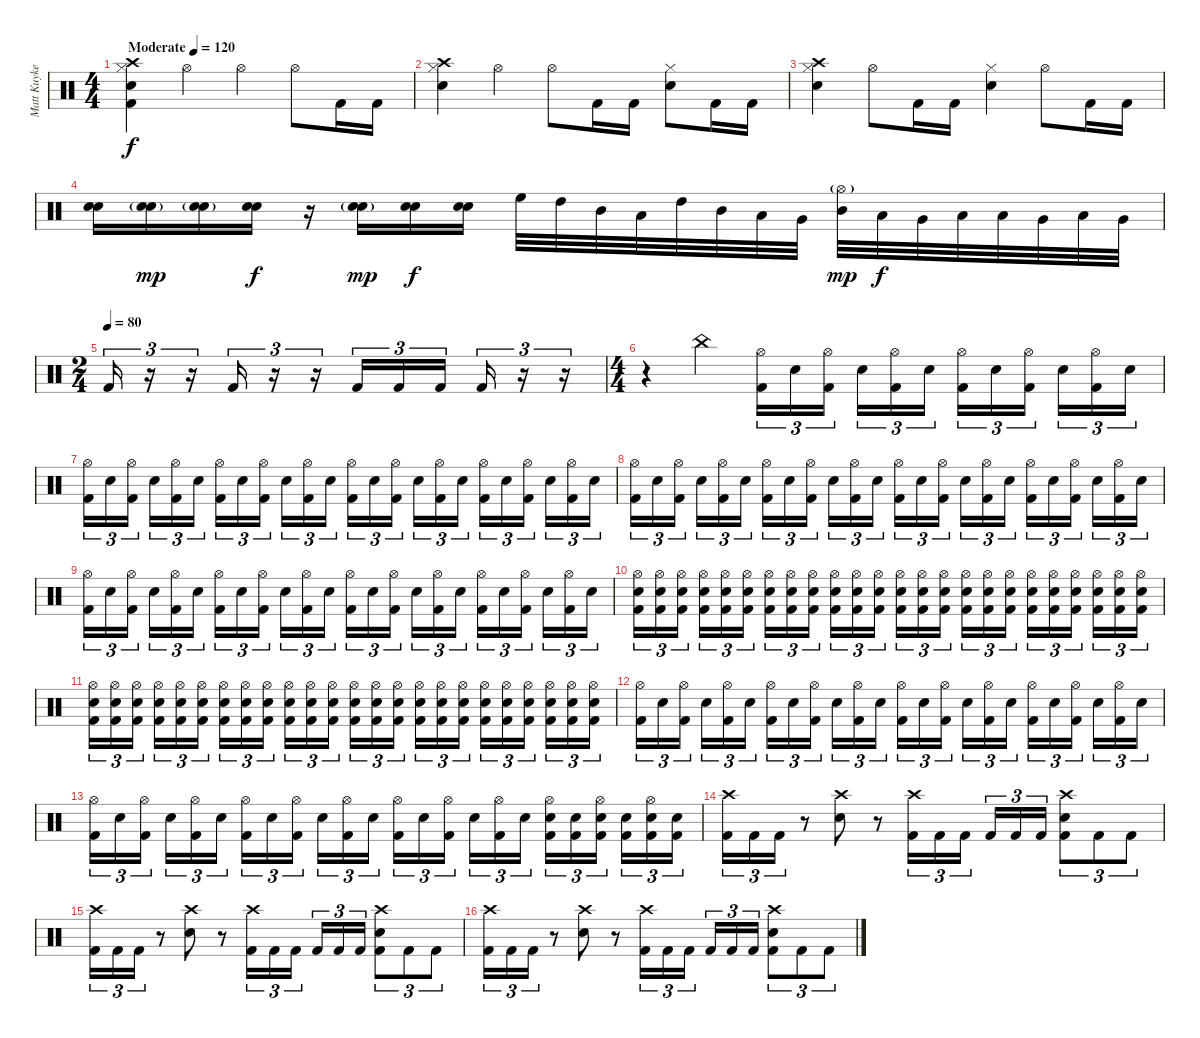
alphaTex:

\track ("Matt Kuykendall (Drums)" "Matt Kuyke") {instrument percussion}
\staff {score}
\articulation defaults
\ts (4 4)
\tempo (120 "Moderate")
\clef neutral
\ks c
("Hi-Hat (closed)" "Crash high (hit)" "Snare (hit) 2" "Kick (hit) 2").4{dy f} "Hi-Hat (open)".4 "Hi-Hat (open)".4 "Hi-Hat (open)".8 "Kick (hit) 2".16 "Kick (hit) 2".16 |
("Hi-Hat (closed)" "Crash high (hit)" "Snare (hit) 2").4 "Hi-Hat (open)".4 "Hi-Hat (open)".8 "Kick (hit) 2".16 "Kick (hit) 2".16 ("Hi-Hat (closed)" "Snare (hit) 2").8 "Kick (hit) 2".16 "Kick (hit) 2".16 |
("Hi-Hat (closed)" "Crash high (hit)" "Snare (hit) 2").4 "Hi-Hat (open)".8 "Kick (hit) 2".16 "Kick (hit) 2".16 ("Hi-Hat (closed)" "Snare (hit) 2").4 "Hi-Hat (open)".8 "Kick (hit) 2".16 "Kick (hit) 2".16 |
("Snare (hit) 2" "Snare (hit) 2").16 ("Snare (hit) 2" "Snare (hit) 2"{g}).16{dy mp} ("Snare (hit) 2" "Snare (hit) 2"{g}).16 ("Snare (hit) 2" "Snare (hit) 2").16{dy f} r.16 ("Snare (hit) 2" "Snare (hit) 2"{g}).16{dy mp} ("Snare (hit) 2" "Snare (hit) 2").16{dy f} ("Snare (hit) 2" "Snare (hit) 2").16 "High Floor Tom (hit)".32 "High Tom (hit)".32 "Mid Tom (hit)".32 "Low Tom (hit)".32 "High Tom (hit)".32 "Mid Tom (hit)".32 "Low Tom (hit)".32 "Very Low Tom (hit)".32 ("Hi-Hat (open)"{g} "Mid Tom (hit)").32{dy mp} "Low Tom (hit)".32{dy f} "Very Low Tom (hit)".32 "Low Floor Tom (hit)".32 "Low Tom (hit)".32 "Very Low Tom (hit)".32 "Low Floor Tom (hit)".32 "Very Low Tom (hit)".32 |
\ts (2 4)
\tempo (80)
"Kick (hit) 2".16{tu (3 2)} r.16{tu (3 2)} r.16{tu (3 2)} "Kick (hit) 2".16{tu (3 2)} r.16{tu (3 2)} r.16{tu (3 2)} "Kick (hit) 2".16{tu (3 2)} "Kick (hit) 2".16{tu (3 2)} "Kick (hit) 2".16{tu (3 2) beam splitsecondary} "Kick (hit) 2".16{tu (3 2)} r.16{tu (3 2)} r.16{tu (3 2)} |
\ts (4 4)
r.4 "China (hit)".4 ("Hi-Hat (open)" "Kick (hit) 2").16{tu (3 2)} "Snare (hit) 2".16{tu (3 2)} ("Hi-Hat (open)" "Kick (hit) 2").16{tu (3 2) beam splitsecondary} "Snare (hit) 2".16{tu (3 2)} ("Hi-Hat (open)" "Kick (hit) 2").16{tu (3 2)} "Snare (hit) 2".16{tu (3 2)} ("Hi-Hat (open)" "Kick (hit) 2").16{tu (3 2)} "Snare (hit) 2".16{tu (3 2)} ("Hi-Hat (open)" "Kick (hit) 2").16{tu (3 2) beam splitsecondary} "Snare (hit) 2".16{tu (3 2)} ("Hi-Hat (open)" "Kick (hit) 2").16{tu (3 2)} "Snare (hit) 2".16{tu (3 2)} |
("Hi-Hat (open)" "Kick (hit) 2").16{tu (3 2)} "Snare (hit) 2".16{tu (3 2)} ("Hi-Hat (open)" "Kick (hit) 2").16{tu (3 2) beam splitsecondary} "Snare (hit) 2".16{tu (3 2)} ("Hi-Hat (open)" "Kick (hit) 2").16{tu (3 2)} "Snare (hit) 2".16{tu (3 2)} ("Hi-Hat (open)" "Kick (hit) 2").16{tu (3 2)} "Snare (hit) 2".16{tu (3 2)} ("Hi-Hat (open)" "Kick (hit) 2").16{tu (3 2) beam splitsecondary} "Snare (hit) 2".16{tu (3 2)} ("Hi-Hat (open)" "Kick (hit) 2").16{tu (3 2)} "Snare (hit) 2".16{tu (3 2)} ("Hi-Hat (open)" "Kick (hit) 2").16{tu (3 2)} "Snare (hit) 2".16{tu (3 2)} ("Hi-Hat (open)" "Kick (hit) 2").16{tu (3 2) beam splitsecondary} "Snare (hit) 2".16{tu (3 2)} ("Hi-Hat (open)" "Kick (hit) 2").16{tu (3 2)} "Snare (hit) 2".16{tu (3 2)} ("Hi-Hat (open)" "Kick (hit) 2").16{tu (3 2)} "Snare (hit) 2".16{tu (3 2)} ("Hi-Hat (open)" "Kick (hit) 2").16{tu (3 2) beam splitsecondary} "Snare (hit) 2".16{tu (3 2)} ("Hi-Hat (open)" "Kick (hit) 2").16{tu (3 2)} "Snare (hit) 2".16{tu (3 2)} |
("Hi-Hat (open)" "Kick (hit) 2").16{tu (3 2)} "Snare (hit) 2".16{tu (3 2)} ("Hi-Hat (open)" "Kick (hit) 2").16{tu (3 2) beam splitsecondary} "Snare (hit) 2".16{tu (3 2)} ("Hi-Hat (open)" "Kick (hit) 2").16{tu (3 2)} "Snare (hit) 2".16{tu (3 2)} ("Hi-Hat (open)" "Kick (hit) 2").16{tu (3 2)} "Snare (hit) 2".16{tu (3 2)} ("Hi-Hat (open)" "Kick (hit) 2").16{tu (3 2) beam splitsecondary} "Snare (hit) 2".16{tu (3 2)} ("Hi-Hat (open)" "Kick (hit) 2").16{tu (3 2)} "Snare (hit) 2".16{tu (3 2)} ("Hi-Hat (open)" "Kick (hit) 2").16{tu (3 2)} "Snare (hit) 2".16{tu (3 2)} ("Hi-Hat (open)" "Kick (hit) 2").16{tu (3 2) beam splitsecondary} "Snare (hit) 2".16{tu (3 2)} ("Hi-Hat (open)" "Kick (hit) 2").16{tu (3 2)} "Snare (hit) 2".16{tu (3 2)} ("Hi-Hat (open)" "Kick (hit) 2").16{tu (3 2)} "Snare (hit) 2".16{tu (3 2)} ("Hi-Hat (open)" "Kick (hit) 2").16{tu (3 2) beam splitsecondary} "Snare (hit) 2".16{tu (3 2)} ("Hi-Hat (open)" "Kick (hit) 2").16{tu (3 2)} "Snare (hit) 2".16{tu (3 2)} |
("Hi-Hat (open)" "Kick (hit) 2").16{tu (3 2)} "Snare (hit) 2".16{tu (3 2)} ("Hi-Hat (open)" "Kick (hit) 2").16{tu (3 2) beam splitsecondary} "Snare (hit) 2".16{tu (3 2)} ("Hi-Hat (open)" "Kick (hit) 2").16{tu (3 2)} "Snare (hit) 2".16{tu (3 2)} ("Hi-Hat (open)" "Kick (hit) 2").16{tu (3 2)} "Snare (hit) 2".16{tu (3 2)} ("Hi-Hat (open)" "Kick (hit) 2").16{tu (3 2) beam splitsecondary} "Snare (hit) 2".16{tu (3 2)} ("Hi-Hat (open)" "Kick (hit) 2").16{tu (3 2)} "Snare (hit) 2".16{tu (3 2)} ("Hi-Hat (open)" "Kick (hit) 2").16{tu (3 2)} "Snare (hit) 2".16{tu (3 2)} ("Hi-Hat (open)" "Kick (hit) 2").16{tu (3 2) beam splitsecondary} "Snare (hit) 2".16{tu (3 2)} ("Hi-Hat (open)" "Kick (hit) 2").16{tu (3 2)} "Snare (hit) 2".16{tu (3 2)} ("Hi-Hat (open)" "Kick (hit) 2").16{tu (3 2)} "Snare (hit) 2".16{tu (3 2)} ("Hi-Hat (open)" "Kick (hit) 2").16{tu (3 2) beam splitsecondary} "Snare (hit) 2".16{tu (3 2)} ("Hi-Hat (open)" "Kick (hit) 2").16{tu (3 2)} "Snare (hit) 2".16{tu (3 2)} |
("Hi-Hat (open)" "Snare (hit) 2" "Kick (hit) 2").16{tu (3 2)} ("Hi-Hat (open)" "Snare (hit) 2" "Kick (hit) 2").16{tu (3 2)} ("Hi-Hat (open)" "Snare (hit) 2" "Kick (hit) 2").16{tu (3 2) beam splitsecondary} ("Hi-Hat (open)" "Snare (hit) 2" "Kick (hit) 2").16{tu (3 2)} ("Hi-Hat (open)" "Snare (hit) 2" "Kick (hit) 2").16{tu (3 2)} ("Hi-Hat (open)" "Snare (hit) 2" "Kick (hit) 2").16{tu (3 2)} ("Hi-Hat (open)" "Snare (hit) 2" "Kick (hit) 2").16{tu (3 2)} ("Hi-Hat (open)" "Snare (hit) 2" "Kick (hit) 2").16{tu (3 2)} ("Hi-Hat (open)" "Snare (hit) 2" "Kick (hit) 2").16{tu (3 2) beam splitsecondary} ("Hi-Hat (open)" "Snare (hit) 2" "Kick (hit) 2").16{tu (3 2)} ("Hi-Hat (open)" "Snare (hit) 2" "Kick (hit) 2").16{tu (3 2)} ("Hi-Hat (open)" "Snare (hit) 2" "Kick (hit) 2").16{tu (3 2)} ("Hi-Hat (open)" "Snare (hit) 2" "Kick (hit) 2").16{tu (3 2)} ("Hi-Hat (open)" "Snare (hit) 2" "Kick (hit) 2").16{tu (3 2)} ("Hi-Hat (open)" "Snare (hit) 2" "Kick (hit) 2").16{tu (3 2) beam splitsecondary} ("Hi-Hat (open)" "Snare (hit) 2" "Kick (hit) 2").16{tu (3 2)} ("Hi-Hat (open)" "Snare (hit) 2" "Kick (hit) 2").16{tu (3 2)} ("Hi-Hat (open)" "Snare (hit) 2" "Kick (hit) 2").16{tu (3 2)} ("Hi-Hat (open)" "Snare (hit) 2" "Kick (hit) 2").16{tu (3 2)} ("Hi-Hat (open)" "Snare (hit) 2" "Kick (hit) 2").16{tu (3 2)} ("Hi-Hat (open)" "Snare (hit) 2" "Kick (hit) 2").16{tu (3 2) beam splitsecondary} ("Hi-Hat (open)" "Snare (hit) 2" "Kick (hit) 2").16{tu (3 2)} ("Hi-Hat (open)" "Snare (hit) 2" "Kick (hit) 2").16{tu (3 2)} ("Hi-Hat (open)" "Snare (hit) 2" "Kick (hit) 2").16{tu (3 2)} |
("Hi-Hat (open)" "Snare (hit) 2" "Kick (hit) 2").16{tu (3 2)} ("Hi-Hat (open)" "Snare (hit) 2" "Kick (hit) 2").16{tu (3 2)} ("Hi-Hat (open)" "Snare (hit) 2" "Kick (hit) 2").16{tu (3 2) beam splitsecondary} ("Hi-Hat (open)" "Snare (hit) 2" "Kick (hit) 2").16{tu (3 2)} ("Hi-Hat (open)" "Snare (hit) 2" "Kick (hit) 2").16{tu (3 2)} ("Hi-Hat (open)" "Snare (hit) 2" "Kick (hit) 2").16{tu (3 2)} ("Hi-Hat (open)" "Snare (hit) 2" "Kick (hit) 2").16{tu (3 2)} ("Hi-Hat (open)" "Snare (hit) 2" "Kick (hit) 2").16{tu (3 2)} ("Hi-Hat (open)" "Snare (hit) 2" "Kick (hit) 2").16{tu (3 2) beam splitsecondary} ("Hi-Hat (open)" "Snare (hit) 2" "Kick (hit) 2").16{tu (3 2)} ("Hi-Hat (open)" "Snare (hit) 2" "Kick (hit) 2").16{tu (3 2)} ("Hi-Hat (open)" "Snare (hit) 2" "Kick (hit) 2").16{tu (3 2)} ("Hi-Hat (open)" "Snare (hit) 2" "Kick (hit) 2").16{tu (3 2)} ("Hi-Hat (open)" "Snare (hit) 2" "Kick (hit) 2").16{tu (3 2)} ("Hi-Hat (open)" "Snare (hit) 2" "Kick (hit) 2").16{tu (3 2) beam splitsecondary} ("Hi-Hat (open)" "Snare (hit) 2" "Kick (hit) 2").16{tu (3 2)} ("Hi-Hat (open)" "Snare (hit) 2" "Kick (hit) 2").16{tu (3 2)} ("Hi-Hat (open)" "Snare (hit) 2" "Kick (hit) 2").16{tu (3 2)} ("Hi-Hat (open)" "Snare (hit) 2" "Kick (hit) 2").16{tu (3 2)} ("Hi-Hat (open)" "Snare (hit) 2" "Kick (hit) 2").16{tu (3 2)} ("Hi-Hat (open)" "Snare (hit) 2" "Kick (hit) 2").16{tu (3 2) beam splitsecondary} ("Hi-Hat (open)" "Snare (hit) 2" "Kick (hit) 2").16{tu (3 2)} ("Hi-Hat (open)" "Snare (hit) 2" "Kick (hit) 2").16{tu (3 2)} ("Hi-Hat (open)" "Snare (hit) 2" "Kick (hit) 2").16{tu (3 2)} |
("Hi-Hat (open)" "Kick (hit) 2").16{tu (3 2)} "Snare (hit) 2".16{tu (3 2)} ("Hi-Hat (open)" "Kick (hit) 2").16{tu (3 2) beam splitsecondary} "Snare (hit) 2".16{tu (3 2)} ("Hi-Hat (open)" "Kick (hit) 2").16{tu (3 2)} "Snare (hit) 2".16{tu (3 2)} ("Hi-Hat (open)" "Kick (hit) 2").16{tu (3 2)} "Snare (hit) 2".16{tu (3 2)} ("Hi-Hat (open)" "Kick (hit) 2").16{tu (3 2) beam splitsecondary} "Snare (hit) 2".16{tu (3 2)} ("Hi-Hat (open)" "Kick (hit) 2").16{tu (3 2)} "Snare (hit) 2".16{tu (3 2)} ("Hi-Hat (open)" "Kick (hit) 2").16{tu (3 2)} "Snare (hit) 2".16{tu (3 2)} ("Hi-Hat (open)" "Kick (hit) 2").16{tu (3 2) beam splitsecondary} "Snare (hit) 2".16{tu (3 2)} ("Hi-Hat (open)" "Kick (hit) 2").16{tu (3 2)} "Snare (hit) 2".16{tu (3 2)} ("Hi-Hat (open)" "Kick (hit) 2").16{tu (3 2)} "Snare (hit) 2".16{tu (3 2)} ("Hi-Hat (open)" "Kick (hit) 2").16{tu (3 2) beam splitsecondary} "Snare (hit) 2".16{tu (3 2)} ("Hi-Hat (open)" "Kick (hit) 2").16{tu (3 2)} "Snare (hit) 2".16{tu (3 2)} |
("Hi-Hat (open)" "Kick (hit) 2").16{tu (3 2)} "Snare (hit) 2".16{tu (3 2)} ("Hi-Hat (open)" "Kick (hit) 2").16{tu (3 2) beam splitsecondary} "Snare (hit) 2".16{tu (3 2)} ("Hi-Hat (open)" "Kick (hit) 2").16{tu (3 2)} "Snare (hit) 2".16{tu (3 2)} ("Hi-Hat (open)" "Kick (hit) 2").16{tu (3 2)} "Snare (hit) 2".16{tu (3 2)} ("Hi-Hat (open)" "Kick (hit) 2").16{tu (3 2) beam splitsecondary} "Snare (hit) 2".16{tu (3 2)} ("Hi-Hat (open)" "Kick (hit) 2").16{tu (3 2)} "Snare (hit) 2".16{tu (3 2)} ("Hi-Hat (open)" "Kick (hit) 2").16{tu (3 2)} "Snare (hit) 2".16{tu (3 2)} ("Hi-Hat (open)" "Kick (hit) 2").16{tu (3 2) beam splitsecondary} "Snare (hit) 2".16{tu (3 2)} ("Hi-Hat (open)" "Kick (hit) 2").16{tu (3 2)} "Snare (hit) 2".16{tu (3 2)} ("Hi-Hat (open)" "Snare (hit) 2" "Kick (hit) 2").16{tu (3 2)} ("Snare (hit) 2" "Kick (hit) 2").16{tu (3 2)} ("Hi-Hat (open)" "Snare (hit) 2" "Kick (hit) 2").16{tu (3 2) beam splitsecondary} ("Snare (hit) 2" "Kick (hit) 2").16{tu (3 2)} ("Hi-Hat (open)" "Snare (hit) 2" "Kick (hit) 2").16{tu (3 2)} ("Snare (hit) 2" "Kick (hit) 2").16{tu (3 2)} |
("Crash high (hit)" "Kick (hit) 2").16{tu (3 2)} "Kick (hit) 2".16{tu (3 2)} "Kick (hit) 2".16{tu (3 2)} r.8 ("Crash high (hit)" "Snare (hit) 2").8 r.8 ("Crash high (hit)" "Kick (hit) 2").16{tu (3 2)} "Kick (hit) 2".16{tu (3 2)} "Kick (hit) 2".16{tu (3 2) beam splitsecondary} "Kick (hit) 2".16{tu (3 2)} "Kick (hit) 2".16{tu (3 2)} "Kick (hit) 2".16{tu (3 2)} ("Crash high (hit)" "Snare (hit) 2" "Kick (hit) 2").8{tu (3 2)} "Kick (hit) 2".8{tu (3 2)} "Kick (hit) 2".8{tu (3 2)} |
("Crash high (hit)" "Kick (hit) 2").16{tu (3 2)} "Kick (hit) 2".16{tu (3 2)} "Kick (hit) 2".16{tu (3 2)} r.8 ("Crash high (hit)" "Snare (hit) 2").8 r.8 ("Crash high (hit)" "Kick (hit) 2").16{tu (3 2)} "Kick (hit) 2".16{tu (3 2)} "Kick (hit) 2".16{tu (3 2) beam splitsecondary} "Kick (hit) 2".16{tu (3 2)} "Kick (hit) 2".16{tu (3 2)} "Kick (hit) 2".16{tu (3 2)} ("Crash high (hit)" "Snare (hit) 2" "Kick (hit) 2").8{tu (3 2)} "Kick (hit) 2".8{tu (3 2)} "Kick (hit) 2".8{tu (3 2)} |
("Crash high (hit)" "Kick (hit) 2").16{tu (3 2)} "Kick (hit) 2".16{tu (3 2)} "Kick (hit) 2".16{tu (3 2)} r.8 ("Crash high (hit)" "Snare (hit) 2").8 r.8 ("Crash high (hit)" "Kick (hit) 2").16{tu (3 2)} "Kick (hit) 2".16{tu (3 2)} "Kick (hit) 2".16{tu (3 2) beam splitsecondary} "Kick (hit) 2".16{tu (3 2)} "Kick (hit) 2".16{tu (3 2)} "Kick (hit) 2".16{tu (3 2)} ("Crash high (hit)" "Snare (hit) 2" "Kick (hit) 2").8{tu (3 2)} "Kick (hit) 2".8{tu (3 2)} "Kick (hit) 2".8{tu (3 2)}
